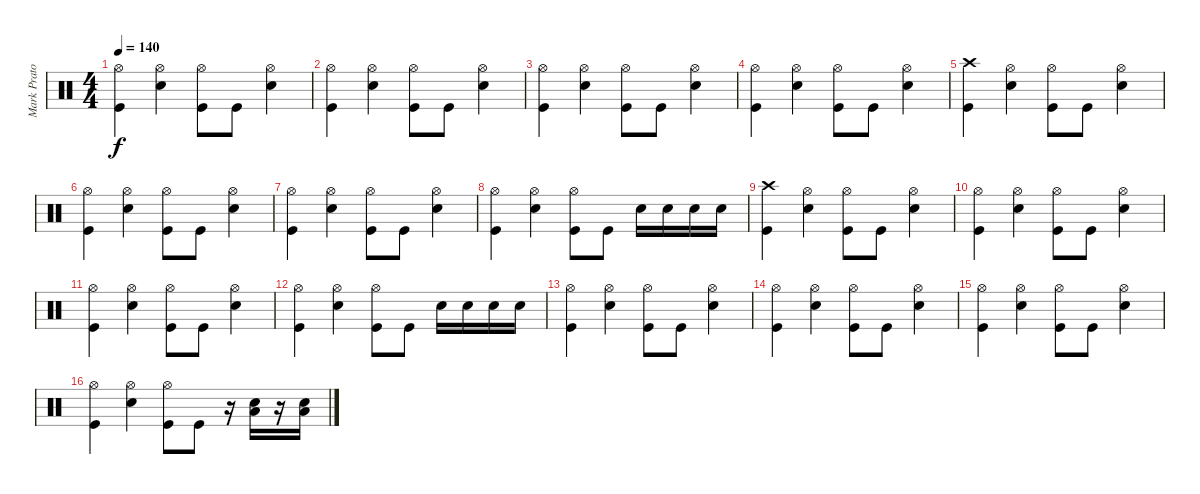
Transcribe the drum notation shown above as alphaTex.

\track ("Mark Prator" "Mark Prato") {instrument percussion}
\staff {score}
\articulation defaults
\ts (4 4)
\tempo 140
\clef neutral
\ks c
("Hi-Hat (open)" "Kick (hit)").4{dy f} ("Hi-Hat (open)" "Snare (hit) 2").4 ("Hi-Hat (open)" "Kick (hit)").8 "Kick (hit)".8 ("Hi-Hat (open)" "Snare (hit) 2").4 |
("Hi-Hat (open)" "Kick (hit)").4 ("Hi-Hat (open)" "Snare (hit) 2").4 ("Hi-Hat (open)" "Kick (hit)").8 "Kick (hit)".8 ("Hi-Hat (open)" "Snare (hit) 2").4 |
("Hi-Hat (open)" "Kick (hit)").4 ("Hi-Hat (open)" "Snare (hit) 2").4 ("Hi-Hat (open)" "Kick (hit)").8 "Kick (hit)".8 ("Hi-Hat (open)" "Snare (hit) 2").4 |
("Hi-Hat (open)" "Kick (hit)").4 ("Hi-Hat (open)" "Snare (hit) 2").4 ("Hi-Hat (open)" "Kick (hit)").8 "Kick (hit)".8 ("Hi-Hat (open)" "Snare (hit) 2").4 |
("Crash high (hit)" "Kick (hit)").4 ("Hi-Hat (open)" "Snare (hit) 2").4 ("Hi-Hat (open)" "Kick (hit)").8 "Kick (hit)".8 ("Hi-Hat (open)" "Snare (hit) 2").4 |
("Hi-Hat (open)" "Kick (hit)").4 ("Hi-Hat (open)" "Snare (hit) 2").4 ("Hi-Hat (open)" "Kick (hit)").8 "Kick (hit)".8 ("Hi-Hat (open)" "Snare (hit) 2").4 |
("Hi-Hat (open)" "Kick (hit)").4 ("Hi-Hat (open)" "Snare (hit) 2").4 ("Hi-Hat (open)" "Kick (hit)").8 "Kick (hit)".8 ("Hi-Hat (open)" "Snare (hit) 2").4 |
("Hi-Hat (open)" "Kick (hit)").4 ("Hi-Hat (open)" "Snare (hit) 2").4 ("Hi-Hat (open)" "Kick (hit)").8 "Kick (hit)".8 "Snare (hit) 2".16 "Snare (hit) 2".16 "Snare (hit) 2".16 "Snare (hit) 2".16 |
("Crash high (hit)" "Kick (hit)").4 ("Hi-Hat (open)" "Snare (hit) 2").4 ("Hi-Hat (open)" "Kick (hit)").8 "Kick (hit)".8 ("Hi-Hat (open)" "Snare (hit) 2").4 |
("Hi-Hat (open)" "Kick (hit)").4 ("Hi-Hat (open)" "Snare (hit) 2").4 ("Hi-Hat (open)" "Kick (hit)").8 "Kick (hit)".8 ("Hi-Hat (open)" "Snare (hit) 2").4 |
("Hi-Hat (open)" "Kick (hit)").4 ("Hi-Hat (open)" "Snare (hit) 2").4 ("Hi-Hat (open)" "Kick (hit)").8 "Kick (hit)".8 ("Hi-Hat (open)" "Snare (hit) 2").4 |
("Hi-Hat (open)" "Kick (hit)").4 ("Hi-Hat (open)" "Snare (hit) 2").4 ("Hi-Hat (open)" "Kick (hit)").8 "Kick (hit)".8 "Snare (hit) 2".16 "Snare (hit) 2".16 "Snare (hit) 2".16 "Snare (hit) 2".16 |
("Hi-Hat (open)" "Kick (hit)").4 ("Hi-Hat (open)" "Snare (hit) 2").4 ("Hi-Hat (open)" "Kick (hit)").8 "Kick (hit)".8 ("Hi-Hat (open)" "Snare (hit) 2").4 |
("Hi-Hat (open)" "Kick (hit)").4 ("Hi-Hat (open)" "Snare (hit) 2").4 ("Hi-Hat (open)" "Kick (hit)").8 "Kick (hit)".8 ("Hi-Hat (open)" "Snare (hit) 2").4 |
("Hi-Hat (open)" "Kick (hit)").4 ("Hi-Hat (open)" "Snare (hit) 2").4 ("Hi-Hat (open)" "Kick (hit)").8 "Kick (hit)".8 ("Hi-Hat (open)" "Snare (hit) 2").4 |
("Hi-Hat (open)" "Kick (hit)").4 ("Hi-Hat (open)" "Snare (hit) 2").4 ("Hi-Hat (open)" "Kick (hit)").8 "Kick (hit)".8 r.16 ("Low Floor Tom (hit)" "Snare (hit) 2").16 r.16 ("Low Floor Tom (hit)" "Snare (hit) 2").16
